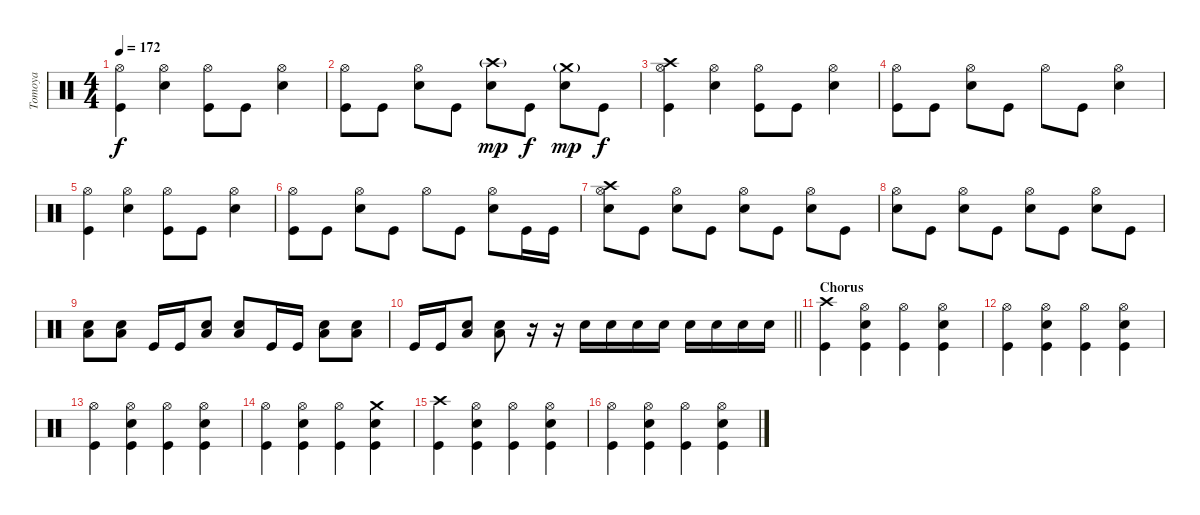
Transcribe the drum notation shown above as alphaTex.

\track ("Tomoya" "Tomoya") {instrument percussion}
\staff {score}
\articulation defaults
\ts (4 4)
\tempo 172
\clef neutral
\ks c
("Hi-Hat (open)" "Kick (hit)").4{dy f} ("Hi-Hat (open)" "Snare (hit) 2").4 ("Hi-Hat (open)" "Kick (hit)").8 "Kick (hit)".8 ("Hi-Hat (open)" "Snare (hit) 2").4 |
("Hi-Hat (open)" "Kick (hit)").8 "Kick (hit)".8 ("Hi-Hat (open)" "Snare (hit) 2").8 "Kick (hit)".8 ("Crash high (hit)"{g} "Snare (hit) 2").8{dy mp} "Kick (hit)".8{dy f} ("Crash medium (hit)"{g} "Snare (hit) 2").8{dy mp} "Kick (hit)".8{dy f} |
("Crash high (hit)" "Hi-Hat (open)" "Kick (hit)").4 ("Hi-Hat (open)" "Snare (hit) 2").4 ("Hi-Hat (open)" "Kick (hit)").8 "Kick (hit)".8 ("Hi-Hat (open)" "Snare (hit) 2").4 |
("Hi-Hat (open)" "Kick (hit)").8 "Kick (hit)".8 ("Hi-Hat (open)" "Snare (hit) 2").8 "Kick (hit)".8 "Hi-Hat (open)".8 "Kick (hit)".8 ("Hi-Hat (open)" "Snare (hit) 2").4 |
("Hi-Hat (open)" "Kick (hit)").4 ("Hi-Hat (open)" "Snare (hit) 2").4 ("Hi-Hat (open)" "Kick (hit)").8 "Kick (hit)".8 ("Hi-Hat (open)" "Snare (hit) 2").4 |
("Hi-Hat (open)" "Kick (hit)").8 "Kick (hit)".8 ("Hi-Hat (open)" "Snare (hit) 2").8 "Kick (hit)".8 "Hi-Hat (open)".8 "Kick (hit)".8 ("Hi-Hat (open)" "Snare (hit) 2").8 "Kick (hit)".16 "Kick (hit)".16 |
("Crash high (hit)" "Hi-Hat (open)" "Snare (hit) 2").8 "Kick (hit)".8 ("Hi-Hat (open)" "Snare (hit) 2").8 "Kick (hit)".8 ("Hi-Hat (open)" "Snare (hit) 2").8 "Kick (hit)".8 ("Hi-Hat (open)" "Snare (hit) 2").8 "Kick (hit)".8 |
("Hi-Hat (open)" "Snare (hit) 2").8 "Kick (hit)".8 ("Hi-Hat (open)" "Snare (hit) 2").8 "Kick (hit)".8 ("Hi-Hat (open)" "Snare (hit) 2").8 "Kick (hit)".8 ("Hi-Hat (open)" "Snare (hit) 2").8 "Kick (hit)".8 |
("Snare (hit) 2" "Low Tom (hit)").8 ("Snare (hit) 2" "Low Tom (hit)").8 "Kick (hit)".16 "Kick (hit)".16 ("Snare (hit) 2" "Low Tom (hit)").8 ("Snare (hit) 2" "Low Tom (hit)").8 "Kick (hit)".16 "Kick (hit)".16 ("Snare (hit) 2" "Low Tom (hit)").8 ("Snare (hit) 2" "Low Tom (hit)").8 |
\barLineRight lightlight "Kick (hit)".16 "Kick (hit)".16
("Snare (hit) 2" "Low Tom (hit)").8 ("Snare (hit) 2" "Low Tom (hit)").8 r.16 r.16 "Snare (hit) 2".16 "Snare (hit) 2".16 "Snare (hit) 2".16 "Snare (hit) 2".16 "Snare (hit) 2".16 "Snare (hit) 2".16 "Snare (hit) 2".16 "Snare (hit) 2".16 |
\section ("" "Chorus")
("Crash high (hit)" "Kick (hit)").4 ("Snare (hit) 2" "Hi-Hat (open)" "Kick (hit)").4 ("Hi-Hat (open)" "Kick (hit)").4 ("Snare (hit) 2" "Hi-Hat (open)" "Kick (hit)").4 |
("Hi-Hat (open)" "Kick (hit)").4 ("Snare (hit) 2" "Hi-Hat (open)" "Kick (hit)").4 ("Hi-Hat (open)" "Kick (hit)").4 ("Snare (hit) 2" "Hi-Hat (open)" "Kick (hit)").4 |
("Hi-Hat (open)" "Kick (hit)").4 ("Snare (hit) 2" "Hi-Hat (open)" "Kick (hit)").4 ("Hi-Hat (open)" "Kick (hit)").4 ("Snare (hit) 2" "Hi-Hat (open)" "Kick (hit)").4 |
("Hi-Hat (open)" "Kick (hit)").4 ("Snare (hit) 2" "Hi-Hat (open)" "Kick (hit)").4 ("Hi-Hat (open)" "Kick (hit)").4 ("Snare (hit) 2" "Crash medium (hit)" "Kick (hit)").4 |
("Crash high (hit)" "Kick (hit)").4 ("Snare (hit) 2" "Hi-Hat (open)" "Kick (hit)").4 ("Hi-Hat (open)" "Kick (hit)").4 ("Snare (hit) 2" "Hi-Hat (open)" "Kick (hit)").4 |
("Hi-Hat (open)" "Kick (hit)").4 ("Snare (hit) 2" "Hi-Hat (open)" "Kick (hit)").4 ("Hi-Hat (open)" "Kick (hit)").4 ("Snare (hit) 2" "Hi-Hat (open)" "Kick (hit)").4
